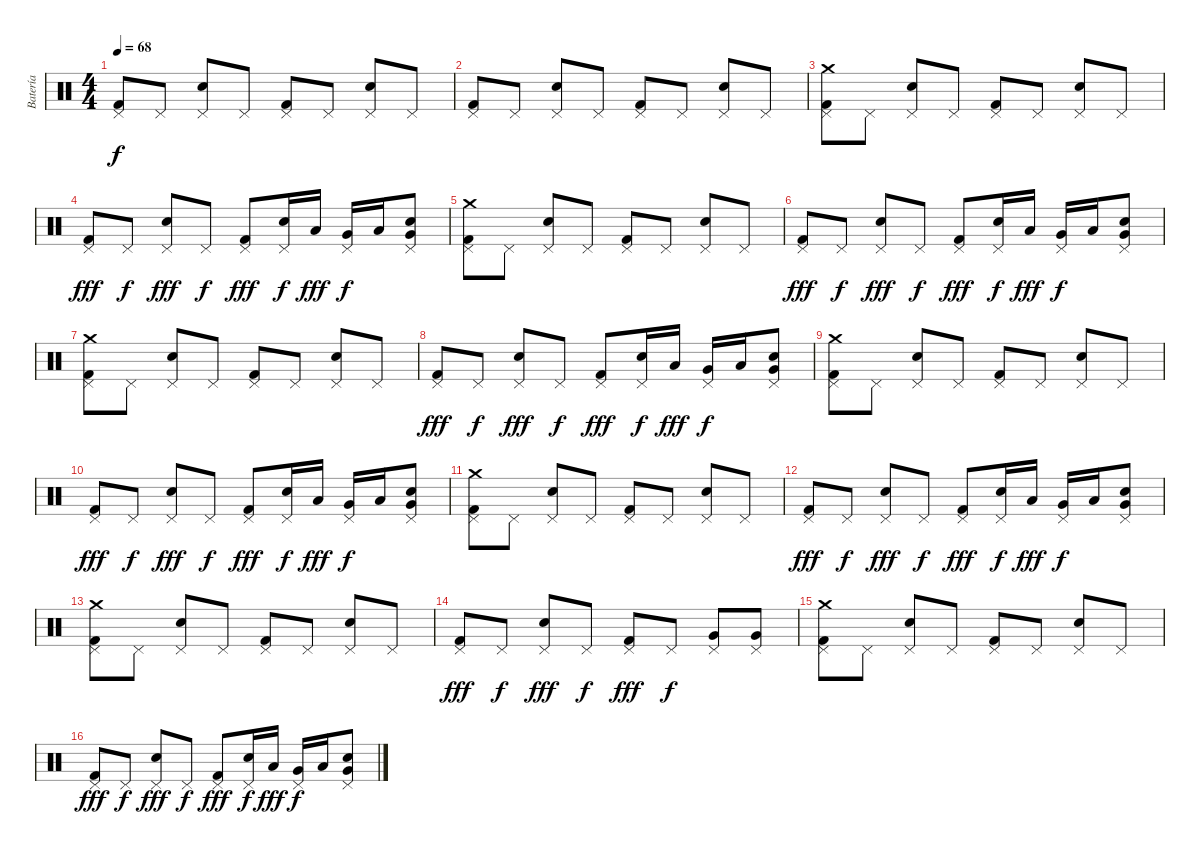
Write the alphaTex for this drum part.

\track ("Batería" "Batería") {instrument percussion}
\staff {score}
\articulation defaults
\ts (4 4)
\tempo 68
\clef neutral
\ks c
("Pedal Hi-Hat (hit)" "Kick (hit) 2").8{dy f} "Pedal Hi-Hat (hit)".8 ("Pedal Hi-Hat (hit)" "Electric Snare (hit)").8 "Pedal Hi-Hat (hit)".8 ("Pedal Hi-Hat (hit)" "Kick (hit) 2").8 "Pedal Hi-Hat (hit)".8 ("Pedal Hi-Hat (hit)" "Electric Snare (hit)").8 "Pedal Hi-Hat (hit)".8 |
("Pedal Hi-Hat (hit)" "Kick (hit) 2").8 "Pedal Hi-Hat (hit)".8 ("Pedal Hi-Hat (hit)" "Electric Snare (hit)").8 "Pedal Hi-Hat (hit)".8 ("Pedal Hi-Hat (hit)" "Kick (hit) 2").8 "Pedal Hi-Hat (hit)".8 ("Pedal Hi-Hat (hit)" "Electric Snare (hit)").8 "Pedal Hi-Hat (hit)".8 |
("Pedal Hi-Hat (hit)" "Kick (hit) 2" "Crash medium (hit)").8 "Pedal Hi-Hat (hit)".8 ("Pedal Hi-Hat (hit)" "Electric Snare (hit)").8 "Pedal Hi-Hat (hit)".8 ("Pedal Hi-Hat (hit)" "Kick (hit) 2").8 "Pedal Hi-Hat (hit)".8 ("Pedal Hi-Hat (hit)" "Electric Snare (hit)").8 "Pedal Hi-Hat (hit)".8 |
("Pedal Hi-Hat (hit)" "Kick (hit) 2").8{dy fff} "Pedal Hi-Hat (hit)".8{dy f} ("Pedal Hi-Hat (hit)" "Electric Snare (hit)").8{dy fff} "Pedal Hi-Hat (hit)".8{dy f} ("Pedal Hi-Hat (hit)" "Kick (hit) 2").8{dy fff} ("Pedal Hi-Hat (hit)" "Electric Snare (hit)").16{dy f} "Low Floor Tom (hit)".16{dy fff} ("Pedal Hi-Hat (hit)" "Very Low Tom (hit)").16{dy f} "Low Floor Tom (hit)".16 ("Pedal Hi-Hat (hit)" "Electric Snare (hit)" "Very Low Tom (hit)").8 |
("Pedal Hi-Hat (hit)" "Kick (hit) 2" "Crash medium (hit)").8 "Pedal Hi-Hat (hit)".8 ("Pedal Hi-Hat (hit)" "Electric Snare (hit)").8 "Pedal Hi-Hat (hit)".8 ("Pedal Hi-Hat (hit)" "Kick (hit) 2").8 "Pedal Hi-Hat (hit)".8 ("Pedal Hi-Hat (hit)" "Electric Snare (hit)").8 "Pedal Hi-Hat (hit)".8 |
("Pedal Hi-Hat (hit)" "Kick (hit) 2").8{dy fff} "Pedal Hi-Hat (hit)".8{dy f} ("Pedal Hi-Hat (hit)" "Electric Snare (hit)").8{dy fff} "Pedal Hi-Hat (hit)".8{dy f} ("Pedal Hi-Hat (hit)" "Kick (hit) 2").8{dy fff} ("Pedal Hi-Hat (hit)" "Electric Snare (hit)").16{dy f} "Low Floor Tom (hit)".16{dy fff} ("Pedal Hi-Hat (hit)" "Very Low Tom (hit)").16{dy f} "Low Floor Tom (hit)".16 ("Pedal Hi-Hat (hit)" "Electric Snare (hit)" "Very Low Tom (hit)").8 |
("Pedal Hi-Hat (hit)" "Kick (hit) 2" "Crash medium (hit)").8 "Pedal Hi-Hat (hit)".8 ("Pedal Hi-Hat (hit)" "Electric Snare (hit)").8 "Pedal Hi-Hat (hit)".8 ("Pedal Hi-Hat (hit)" "Kick (hit) 2").8 "Pedal Hi-Hat (hit)".8 ("Pedal Hi-Hat (hit)" "Electric Snare (hit)").8 "Pedal Hi-Hat (hit)".8 |
("Pedal Hi-Hat (hit)" "Kick (hit) 2").8{dy fff} "Pedal Hi-Hat (hit)".8{dy f} ("Pedal Hi-Hat (hit)" "Electric Snare (hit)").8{dy fff} "Pedal Hi-Hat (hit)".8{dy f} ("Pedal Hi-Hat (hit)" "Kick (hit) 2").8{dy fff} ("Pedal Hi-Hat (hit)" "Electric Snare (hit)").16{dy f} "Low Floor Tom (hit)".16{dy fff} ("Pedal Hi-Hat (hit)" "Very Low Tom (hit)").16{dy f} "Low Floor Tom (hit)".16 ("Pedal Hi-Hat (hit)" "Electric Snare (hit)" "Very Low Tom (hit)").8 |
("Pedal Hi-Hat (hit)" "Kick (hit) 2" "Crash medium (hit)").8 "Pedal Hi-Hat (hit)".8 ("Pedal Hi-Hat (hit)" "Electric Snare (hit)").8 "Pedal Hi-Hat (hit)".8 ("Pedal Hi-Hat (hit)" "Kick (hit) 2").8 "Pedal Hi-Hat (hit)".8 ("Pedal Hi-Hat (hit)" "Electric Snare (hit)").8 "Pedal Hi-Hat (hit)".8 |
("Pedal Hi-Hat (hit)" "Kick (hit) 2").8{dy fff} "Pedal Hi-Hat (hit)".8{dy f} ("Pedal Hi-Hat (hit)" "Electric Snare (hit)").8{dy fff} "Pedal Hi-Hat (hit)".8{dy f} ("Pedal Hi-Hat (hit)" "Kick (hit) 2").8{dy fff} ("Pedal Hi-Hat (hit)" "Electric Snare (hit)").16{dy f} "Low Floor Tom (hit)".16{dy fff} ("Pedal Hi-Hat (hit)" "Very Low Tom (hit)").16{dy f} "Low Floor Tom (hit)".16 ("Pedal Hi-Hat (hit)" "Electric Snare (hit)" "Very Low Tom (hit)").8 |
("Pedal Hi-Hat (hit)" "Kick (hit) 2" "Crash medium (hit)").8 "Pedal Hi-Hat (hit)".8 ("Pedal Hi-Hat (hit)" "Electric Snare (hit)").8 "Pedal Hi-Hat (hit)".8 ("Pedal Hi-Hat (hit)" "Kick (hit) 2").8 "Pedal Hi-Hat (hit)".8 ("Pedal Hi-Hat (hit)" "Electric Snare (hit)").8 "Pedal Hi-Hat (hit)".8 |
("Pedal Hi-Hat (hit)" "Kick (hit) 2").8{dy fff} "Pedal Hi-Hat (hit)".8{dy f} ("Pedal Hi-Hat (hit)" "Electric Snare (hit)").8{dy fff} "Pedal Hi-Hat (hit)".8{dy f} ("Pedal Hi-Hat (hit)" "Kick (hit) 2").8{dy fff} ("Pedal Hi-Hat (hit)" "Electric Snare (hit)").16{dy f} "Low Floor Tom (hit)".16{dy fff} ("Pedal Hi-Hat (hit)" "Very Low Tom (hit)").16{dy f} "Low Floor Tom (hit)".16 ("Pedal Hi-Hat (hit)" "Electric Snare (hit)" "Very Low Tom (hit)").8 |
("Pedal Hi-Hat (hit)" "Kick (hit) 2" "Crash medium (hit)").8 "Pedal Hi-Hat (hit)".8 ("Pedal Hi-Hat (hit)" "Electric Snare (hit)").8 "Pedal Hi-Hat (hit)".8 ("Pedal Hi-Hat (hit)" "Kick (hit) 2").8 "Pedal Hi-Hat (hit)".8 ("Pedal Hi-Hat (hit)" "Electric Snare (hit)").8 "Pedal Hi-Hat (hit)".8 |
("Pedal Hi-Hat (hit)" "Kick (hit) 2").8{dy fff} "Pedal Hi-Hat (hit)".8{dy f} ("Pedal Hi-Hat (hit)" "Electric Snare (hit)").8{dy fff} "Pedal Hi-Hat (hit)".8{dy f} ("Pedal Hi-Hat (hit)" "Kick (hit) 2").8{dy fff} "Pedal Hi-Hat (hit)".8{dy f} ("Pedal Hi-Hat (hit)" "Very Low Tom (hit)").8 ("Pedal Hi-Hat (hit)" "Very Low Tom (hit)").8 |
("Pedal Hi-Hat (hit)" "Kick (hit) 2" "Crash medium (hit)").8 "Pedal Hi-Hat (hit)".8 ("Pedal Hi-Hat (hit)" "Electric Snare (hit)").8 "Pedal Hi-Hat (hit)".8 ("Pedal Hi-Hat (hit)" "Kick (hit) 2").8 "Pedal Hi-Hat (hit)".8 ("Pedal Hi-Hat (hit)" "Electric Snare (hit)").8 "Pedal Hi-Hat (hit)".8 |
("Pedal Hi-Hat (hit)" "Kick (hit) 2").8{dy fff} "Pedal Hi-Hat (hit)".8{dy f} ("Pedal Hi-Hat (hit)" "Electric Snare (hit)").8{dy fff} "Pedal Hi-Hat (hit)".8{dy f} ("Pedal Hi-Hat (hit)" "Kick (hit) 2").8{dy fff} ("Pedal Hi-Hat (hit)" "Electric Snare (hit)").16{dy f} "Low Floor Tom (hit)".16{dy fff} ("Pedal Hi-Hat (hit)" "Very Low Tom (hit)").16{dy f} "Low Floor Tom (hit)".16 ("Pedal Hi-Hat (hit)" "Electric Snare (hit)" "Very Low Tom (hit)").8
